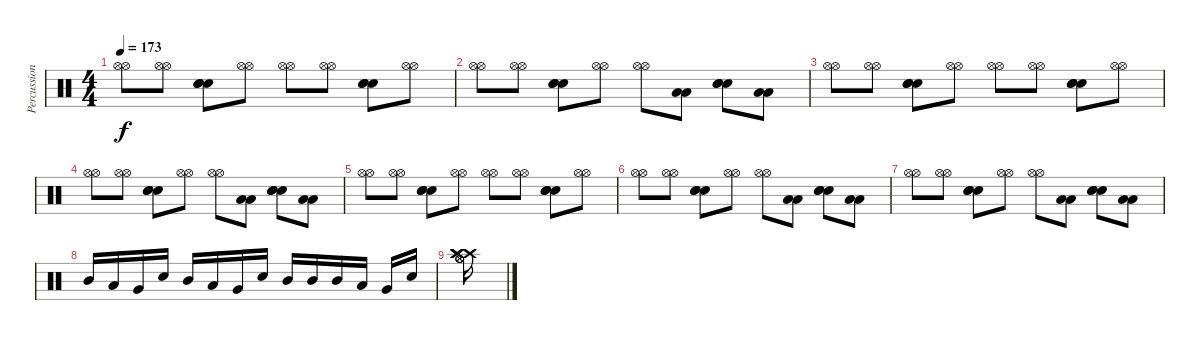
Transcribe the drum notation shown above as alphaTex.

\track ("Percussion" "Percussion") {instrument percussion}
\staff {score}
\articulation defaults
\ts (4 4)
\tempo 173
\clef neutral
\ks c
("Hi-Hat (open)" "Hi-Hat (open)").8{dy f} ("Hi-Hat (open)" "Hi-Hat (open)").8 ("Electric Snare (hit)" "Electric Snare (hit)" "Electric Snare (hit)").8 ("Hi-Hat (open)" "Hi-Hat (open)").8 ("Hi-Hat (open)" "Hi-Hat (open)").8 ("Hi-Hat (open)" "Hi-Hat (open)").8 ("Electric Snare (hit)" "Electric Snare (hit)" "Electric Snare (hit)").8 ("Hi-Hat (open)" "Hi-Hat (open)").8 |
("Hi-Hat (open)" "Hi-Hat (open)").8 ("Hi-Hat (open)" "Hi-Hat (open)").8 ("Electric Snare (hit)" "Electric Snare (hit)" "Electric Snare (hit)").8 ("Hi-Hat (open)" "Hi-Hat (open)").8 ("Hi-Hat (open)" "Hi-Hat (open)").8 ("Low Tom (hit)" "Low Tom (hit)").8 ("Electric Snare (hit)" "Electric Snare (hit)" "Electric Snare (hit)").8 ("Low Tom (hit)" "Low Tom (hit)").8 |
("Hi-Hat (open)" "Hi-Hat (open)").8 ("Hi-Hat (open)" "Hi-Hat (open)").8 ("Electric Snare (hit)" "Electric Snare (hit)" "Electric Snare (hit)").8 ("Hi-Hat (open)" "Hi-Hat (open)").8 ("Hi-Hat (open)" "Hi-Hat (open)").8 ("Hi-Hat (open)" "Hi-Hat (open)").8 ("Electric Snare (hit)" "Electric Snare (hit)" "Electric Snare (hit)").8 ("Hi-Hat (open)" "Hi-Hat (open)").8 |
("Hi-Hat (open)" "Hi-Hat (open)").8 ("Hi-Hat (open)" "Hi-Hat (open)").8 ("Electric Snare (hit)" "Electric Snare (hit)" "Electric Snare (hit)").8 ("Hi-Hat (open)" "Hi-Hat (open)").8 ("Hi-Hat (open)" "Hi-Hat (open)").8 ("Low Tom (hit)" "Low Tom (hit)").8 ("Electric Snare (hit)" "Electric Snare (hit)" "Electric Snare (hit)").8 ("Low Tom (hit)" "Low Tom (hit)").8 |
("Hi-Hat (open)" "Hi-Hat (open)").8 ("Hi-Hat (open)" "Hi-Hat (open)").8 ("Electric Snare (hit)" "Electric Snare (hit)" "Electric Snare (hit)").8 ("Hi-Hat (open)" "Hi-Hat (open)").8 ("Hi-Hat (open)" "Hi-Hat (open)").8 ("Hi-Hat (open)" "Hi-Hat (open)").8 ("Electric Snare (hit)" "Electric Snare (hit)" "Electric Snare (hit)").8 ("Hi-Hat (open)" "Hi-Hat (open)").8 |
("Hi-Hat (open)" "Hi-Hat (open)").8 ("Hi-Hat (open)" "Hi-Hat (open)").8 ("Electric Snare (hit)" "Electric Snare (hit)" "Electric Snare (hit)").8 ("Hi-Hat (open)" "Hi-Hat (open)").8 ("Hi-Hat (open)" "Hi-Hat (open)").8 ("Low Tom (hit)" "Low Tom (hit)").8 ("Electric Snare (hit)" "Electric Snare (hit)" "Electric Snare (hit)").8 ("Low Tom (hit)" "Low Tom (hit)").8 |
("Hi-Hat (open)" "Hi-Hat (open)").8 ("Hi-Hat (open)" "Hi-Hat (open)").8 ("Electric Snare (hit)" "Electric Snare (hit)" "Electric Snare (hit)").8 ("Hi-Hat (open)" "Hi-Hat (open)").8 ("Hi-Hat (open)" "Hi-Hat (open)").8 ("Low Tom (hit)" "Low Tom (hit)").8 ("Electric Snare (hit)" "Electric Snare (hit)" "Electric Snare (hit)").8 ("Low Tom (hit)" "Low Tom (hit)").8 |
"Mid Tom (hit)".16 "Low Tom (hit)".16 "Very Low Tom (hit)".16 "Electric Snare (hit)".16 "Mid Tom (hit)".16 "Low Tom (hit)".16 "Very Low Tom (hit)".16 "Electric Snare (hit)".16 "Mid Tom (hit)".16 "Mid Tom (hit)".16 "Mid Tom (hit)".16 "Low Tom (hit)".16 "Very Low Tom (hit)".16 "Electric Snare (hit)".16 |
("Crash high (hit)" "Crash high (hit)" "Crash high (hit)" "Hi-Hat (open)" "Hi-Hat (open)" "Hi-Hat (open)").16
